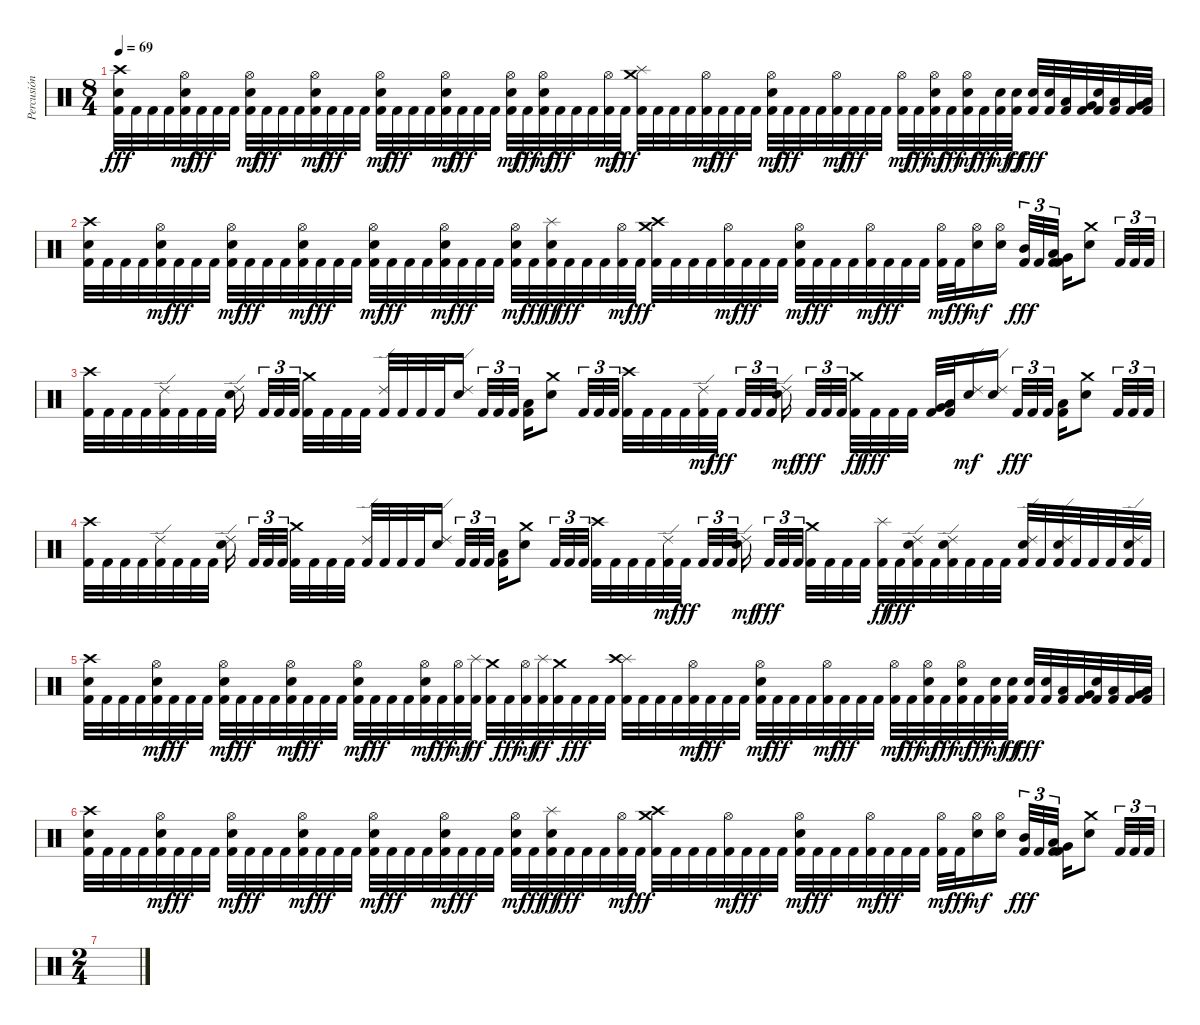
\track ("Percusión" "Percusión") {instrument percussion}
\staff {score}
\articulation defaults
\ts (8 4)
\tempo 69
\clef neutral
\ks c
("Kick (hit) 2" "Electric Snare (hit)" "Crash high (hit)").32{dy fff} "Kick (hit) 2".32 "Kick (hit) 2".32 "Kick (hit) 2".32 ("Kick (hit) 2" "Electric Snare (hit)" "Hi-Hat (open)").32{dy mf} "Kick (hit) 2".32{dy fff} "Kick (hit) 2".32 "Kick (hit) 2".32 ("Kick (hit) 2" "Electric Snare (hit)" "Hi-Hat (open)").32{dy mf} "Kick (hit) 2".32{dy fff} "Kick (hit) 2".32 "Kick (hit) 2".32 ("Kick (hit) 2" "Electric Snare (hit)" "Hi-Hat (open)").32{dy mf} "Kick (hit) 2".32{dy fff} "Kick (hit) 2".32 "Kick (hit) 2".32 ("Kick (hit) 2" "Electric Snare (hit)" "Hi-Hat (open)").32{dy mf} "Kick (hit) 2".32{dy fff} "Kick (hit) 2".32 "Kick (hit) 2".32 ("Kick (hit) 2" "Electric Snare (hit)" "Hi-Hat (open)").32{dy mf} "Kick (hit) 2".32{dy fff} "Kick (hit) 2".32 "Kick (hit) 2".32 ("Kick (hit) 2" "Electric Snare (hit)" "Hi-Hat (open)").32{dy mf} "Kick (hit) 2".32{dy fff} ("Kick (hit) 2" "Electric Snare (hit)" "Hi-Hat (open)").32{dy mf} "Kick (hit) 2".32{dy fff} "Kick (hit) 2".32 "Kick (hit) 2".32 ("Kick (hit) 2" "Hi-Hat (open)").32{dy mf} "Kick (hit) 2".32{dy fff} ("Kick (hit) 2" "Splash (hit)" "Crash medium (hit)").32 "Kick (hit) 2".32 "Kick (hit) 2".32 "Kick (hit) 2".32 ("Kick (hit) 2" "Hi-Hat (open)").32{dy mf} "Kick (hit) 2".32{dy fff} "Kick (hit) 2".32 "Kick (hit) 2".32 ("Kick (hit) 2" "Electric Snare (hit)" "Hi-Hat (open)").32{dy mf} "Kick (hit) 2".32{dy fff} "Kick (hit) 2".32 "Kick (hit) 2".32 ("Kick (hit) 2" "Hi-Hat (open)").32{dy mf} "Kick (hit) 2".32{dy fff} "Kick (hit) 2".32 "Kick (hit) 2".32 ("Kick (hit) 2" "Hi-Hat (open)").32{dy mf} "Kick (hit) 2".32{dy fff} ("Kick (hit) 2" "Electric Snare (hit)" "Hi-Hat (open)").32{dy mf} "Kick (hit) 2".32{dy fff} ("Kick (hit) 2" "Electric Snare (hit)" "Hi-Hat (open)").32{dy mf} "Kick (hit) 2".32{dy fff} ("Kick (hit) 2" "Electric Snare (hit)").32{dy mf} ("Kick (hit) 2" "Electric Snare (hit)").32{dy ff} ("Kick (hit) 2" "Electric Snare (hit)").32{dy fff} ("Kick (hit) 2" "Electric Snare (hit)").32 ("Kick (hit) 2" "Low Tom (hit)").32 ("Kick (hit) 2" "Very Low Tom (hit)").32 ("Kick (hit) 2" "Electric Snare (hit)").32 ("Kick (hit) 2" "Low Tom (hit)").32 ("Kick (hit) 2" "Very Low Tom (hit)").32 ("Kick (hit) 2" "Low Floor Tom (hit)").32 |
("Kick (hit) 2" "Electric Snare (hit)" "Crash high (hit)").32 "Kick (hit) 2".32 "Kick (hit) 2".32 "Kick (hit) 2".32 ("Kick (hit) 2" "Electric Snare (hit)" "Hi-Hat (open)").32{dy mf} "Kick (hit) 2".32{dy fff} "Kick (hit) 2".32 "Kick (hit) 2".32 ("Kick (hit) 2" "Electric Snare (hit)" "Hi-Hat (open)").32{dy mf} "Kick (hit) 2".32{dy fff} "Kick (hit) 2".32 "Kick (hit) 2".32 ("Kick (hit) 2" "Electric Snare (hit)" "Hi-Hat (open)").32{dy mf} "Kick (hit) 2".32{dy fff} "Kick (hit) 2".32 "Kick (hit) 2".32 ("Kick (hit) 2" "Electric Snare (hit)" "Hi-Hat (open)").32{dy mf} "Kick (hit) 2".32{dy fff} "Kick (hit) 2".32 "Kick (hit) 2".32 ("Kick (hit) 2" "Electric Snare (hit)" "Hi-Hat (open)").32{dy mf} "Kick (hit) 2".32{dy fff} "Kick (hit) 2".32 "Kick (hit) 2".32 ("Kick (hit) 2" "Electric Snare (hit)" "Hi-Hat (open)").32{dy mf} "Kick (hit) 2".32{dy fff} ("Kick (hit) 2" "Electric Snare (hit)" "Splash (hit)").32{dy ff} "Kick (hit) 2".32{dy fff} "Kick (hit) 2".32 "Kick (hit) 2".32 ("Kick (hit) 2" "Hi-Hat (open)").32{dy mf} "Kick (hit) 2".32{dy fff} ("Kick (hit) 2" "Crash high (hit)" "Crash medium (hit)").32 "Kick (hit) 2".32 "Kick (hit) 2".32 "Kick (hit) 2".32 ("Kick (hit) 2" "Hi-Hat (open)").32{dy mf} "Kick (hit) 2".32{dy fff} "Kick (hit) 2".32 "Kick (hit) 2".32 ("Kick (hit) 2" "Electric Snare (hit)" "Hi-Hat (open)").32{dy mf} "Kick (hit) 2".32{dy fff} "Kick (hit) 2".32 "Kick (hit) 2".32 ("Kick (hit) 2" "Hi-Hat (open)").32{dy mf} "Kick (hit) 2".32{dy fff} "Kick (hit) 2".32 "Kick (hit) 2".32 ("Kick (hit) 2" "Hi-Hat (open)").32{dy mf} "Kick (hit) 2".32{dy fff} ("Electric Snare (hit)" "Hi-Hat (open)").16{dy mf} ("Electric Snare (hit)" "Hi-Hat (open)").16{beam splitsecondary} ("Kick (hit) 2" "Mid Tom (hit)").32{tu (3 2) dy fff} "Kick (hit) 2".32{tu (3 2)} ("Kick (hit) 2" "Low Tom (hit)").32{tu (3 2)} ("Kick (hit) 2" "Very Low Tom (hit)").16 ("Electric Snare (hit)" "Crash medium (hit)").8 "Kick (hit) 2".32{tu (3 2)} "Kick (hit) 2".32{tu (3 2)} "Kick (hit) 2".32{tu (3 2)} |
("Kick (hit) 2" "Crash high (hit)").32{volume 7} "Kick (hit) 2".32 "Kick (hit) 2".32 "Kick (hit) 2".32 ("Kick (hit) 2" "Ride (edge) 2").32 "Kick (hit) 2".32 "Kick (hit) 2".32 "Kick (hit) 2".32 ("Electric Snare (hit)" "Ride (edge) 2").16{beam splitsecondary} "Kick (hit) 2".32{tu (3 2)} "Kick (hit) 2".32{tu (3 2)} "Kick (hit) 2".32{tu (3 2) beam splitsecondary} ("Kick (hit) 2" "Crash medium (hit)").32 "Kick (hit) 2".32 "Kick (hit) 2".32 "Kick (hit) 2".32 ("Kick (hit) 2" "Ride (edge) 2").32 "Kick (hit) 2".32 "Kick (hit) 2".32 "Kick (hit) 2".32 ("Electric Snare (hit)" "Ride (edge) 2").16{beam splitsecondary} "Kick (hit) 2".32{tu (3 2)} "Kick (hit) 2".32{tu (3 2)} "Kick (hit) 2".32{tu (3 2)} ("Kick (hit) 2" "Low Floor Tom (hit)").16 ("Electric Snare (hit)" "Crash medium (hit)").8 "Kick (hit) 2".32{tu (3 2)} "Kick (hit) 2".32{tu (3 2)} "Kick (hit) 2".32{tu (3 2)} ("Kick (hit) 2" "Crash high (hit)").32 "Kick (hit) 2".32 "Kick (hit) 2".32 "Kick (hit) 2".32 ("Kick (hit) 2" "Ride (edge) 2").32{dy mf} "Kick (hit) 2".32{dy fff beam splitsecondary} "Kick (hit) 2".32{tu (3 2)} "Kick (hit) 2".32{tu (3 2)} "Kick (hit) 2".32{tu (3 2)} ("Electric Snare (hit)" "Ride (edge) 2").16{dy mf beam splitsecondary} "Kick (hit) 2".32{tu (3 2) dy fff} "Kick (hit) 2".32{tu (3 2)} "Kick (hit) 2".32{tu (3 2) beam splitsecondary} ("Kick (hit) 2" "Crash medium (hit)").32{dy ff} "Kick (hit) 2".32{dy fff} "Kick (hit) 2".32 "Kick (hit) 2".32 ("Kick (hit) 2" "Very Low Tom (hit)").32 ("Kick (hit) 2" "Low Floor Tom (hit)").32 ("Electric Snare (hit)" "Ride (edge) 2").16{dy mf} ("Electric Snare (hit)" "Ride (edge) 2").16{beam splitsecondary} "Kick (hit) 2".32{tu (3 2) dy fff} "Kick (hit) 2".32{tu (3 2)} "Kick (hit) 2".32{tu (3 2)} ("Kick (hit) 2" "Low Floor Tom (hit)").16 ("Electric Snare (hit)" "Crash medium (hit)").8 "Kick (hit) 2".32{tu (3 2)} "Kick (hit) 2".32{tu (3 2)} "Kick (hit) 2".32{tu (3 2)} |
("Kick (hit) 2" "Crash high (hit)").32 "Kick (hit) 2".32 "Kick (hit) 2".32 "Kick (hit) 2".32 ("Kick (hit) 2" "Ride (edge) 2").32 "Kick (hit) 2".32 "Kick (hit) 2".32 "Kick (hit) 2".32 ("Electric Snare (hit)" "Ride (edge) 2").16{beam splitsecondary} "Kick (hit) 2".32{tu (3 2)} "Kick (hit) 2".32{tu (3 2)} "Kick (hit) 2".32{tu (3 2) beam splitsecondary} ("Kick (hit) 2" "Crash medium (hit)").32 "Kick (hit) 2".32 "Kick (hit) 2".32 "Kick (hit) 2".32 ("Kick (hit) 2" "Ride (edge) 2").32 "Kick (hit) 2".32 "Kick (hit) 2".32 "Kick (hit) 2".32 ("Electric Snare (hit)" "Ride (edge) 2").16{beam splitsecondary} "Kick (hit) 2".32{tu (3 2)} "Kick (hit) 2".32{tu (3 2)} "Kick (hit) 2".32{tu (3 2)} ("Kick (hit) 2" "Low Floor Tom (hit)").16 ("Electric Snare (hit)" "Crash medium (hit)").8 "Kick (hit) 2".32{tu (3 2)} "Kick (hit) 2".32{tu (3 2)} "Kick (hit) 2".32{tu (3 2)} ("Kick (hit) 2" "Crash high (hit)").32 "Kick (hit) 2".32 "Kick (hit) 2".32 "Kick (hit) 2".32 ("Kick (hit) 2" "Ride (edge) 2").32{dy mf} "Kick (hit) 2".32{dy fff beam splitsecondary} "Kick (hit) 2".32{tu (3 2)} "Kick (hit) 2".32{tu (3 2)} "Kick (hit) 2".32{tu (3 2)} ("Electric Snare (hit)" "Ride (edge) 2").16{dy mf beam splitsecondary} "Kick (hit) 2".32{tu (3 2) dy fff} "Kick (hit) 2".32{tu (3 2)} "Kick (hit) 2".32{tu (3 2) beam splitsecondary} ("Kick (hit) 2" "Crash medium (hit)").32 "Kick (hit) 2".32 "Kick (hit) 2".32 "Kick (hit) 2".32 ("Kick (hit) 2" "Splash (hit)").32{dy ff} "Kick (hit) 2".32{dy fff} ("Kick (hit) 2" "Electric Snare (hit)" "Ride (edge) 2").32 "Kick (hit) 2".32 ("Kick (hit) 2" "Electric Snare (hit)" "Ride (edge) 2").32 "Kick (hit) 2".32 "Kick (hit) 2".32 "Kick (hit) 2".32 ("Kick (hit) 2" "Electric Snare (hit)" "Ride (edge) 2").32 "Kick (hit) 2".32 ("Kick (hit) 2" "Electric Snare (hit)" "Ride (edge) 2").32 "Kick (hit) 2".32 "Kick (hit) 2".32 "Kick (hit) 2".32 ("Kick (hit) 2" "Electric Snare (hit)" "Ride (edge) 2").32 "Kick (hit) 2".32 |
("Kick (hit) 2" "Electric Snare (hit)" "Crash high (hit)").32{volume 0} "Kick (hit) 2".32 "Kick (hit) 2".32 "Kick (hit) 2".32 ("Kick (hit) 2" "Electric Snare (hit)" "Hi-Hat (open)").32{dy mf} "Kick (hit) 2".32{dy fff} "Kick (hit) 2".32 "Kick (hit) 2".32 ("Kick (hit) 2" "Electric Snare (hit)" "Hi-Hat (open)").32{dy mf} "Kick (hit) 2".32{dy fff} "Kick (hit) 2".32 "Kick (hit) 2".32 ("Kick (hit) 2" "Electric Snare (hit)" "Hi-Hat (open)").32{dy mf} "Kick (hit) 2".32{dy fff} "Kick (hit) 2".32 "Kick (hit) 2".32 ("Kick (hit) 2" "Electric Snare (hit)" "Hi-Hat (open)").32{dy mf} "Kick (hit) 2".32{dy fff} "Kick (hit) 2".32 "Kick (hit) 2".32 ("Kick (hit) 2" "Electric Snare (hit)" "Hi-Hat (open)").32{dy mf} "Kick (hit) 2".32{dy fff} ("Kick (hit) 2" "Hi-Hat (open)").32{dy mf} ("Kick (hit) 2" "Splash (hit)").32{dy ff} ("Kick (hit) 2" "Crash medium (hit)").32 "Kick (hit) 2".32{dy fff} ("Kick (hit) 2" "Hi-Hat (open)").32{dy mf} ("Kick (hit) 2" "Splash (hit)").32{dy ff} ("Kick (hit) 2" "Crash medium (hit)").32 "Kick (hit) 2".32{dy fff} "Kick (hit) 2".32 "Kick (hit) 2".32 ("Kick (hit) 2" "Splash (hit)" "Crash high (hit)").32 "Kick (hit) 2".32 "Kick (hit) 2".32 "Kick (hit) 2".32 ("Kick (hit) 2" "Hi-Hat (open)").32{dy mf} "Kick (hit) 2".32{dy fff} "Kick (hit) 2".32 "Kick (hit) 2".32 ("Kick (hit) 2" "Electric Snare (hit)" "Hi-Hat (open)").32{dy mf} "Kick (hit) 2".32{dy fff} "Kick (hit) 2".32 "Kick (hit) 2".32 ("Kick (hit) 2" "Hi-Hat (open)").32{dy mf} "Kick (hit) 2".32{dy fff} "Kick (hit) 2".32 "Kick (hit) 2".32 ("Kick (hit) 2" "Hi-Hat (open)").32{dy mf} "Kick (hit) 2".32{dy fff} ("Kick (hit) 2" "Electric Snare (hit)" "Hi-Hat (open)").32{dy mf} "Kick (hit) 2".32{dy fff} ("Kick (hit) 2" "Electric Snare (hit)" "Hi-Hat (open)").32{dy mf} "Kick (hit) 2".32{dy fff} ("Kick (hit) 2" "Electric Snare (hit)").32{dy mf} ("Kick (hit) 2" "Electric Snare (hit)").32{dy ff} ("Kick (hit) 2" "Electric Snare (hit)").32{dy fff} ("Kick (hit) 2" "Electric Snare (hit)").32 ("Kick (hit) 2" "Low Tom (hit)").32 ("Kick (hit) 2" "Very Low Tom (hit)").32 ("Kick (hit) 2" "Electric Snare (hit)").32 ("Kick (hit) 2" "Low Tom (hit)").32 ("Kick (hit) 2" "Very Low Tom (hit)").32 ("Kick (hit) 2" "Low Floor Tom (hit)").32 |
("Kick (hit) 2" "Electric Snare (hit)" "Crash high (hit)").32 "Kick (hit) 2".32 "Kick (hit) 2".32 "Kick (hit) 2".32 ("Kick (hit) 2" "Electric Snare (hit)" "Hi-Hat (open)").32{dy mf} "Kick (hit) 2".32{dy fff} "Kick (hit) 2".32 "Kick (hit) 2".32 ("Kick (hit) 2" "Electric Snare (hit)" "Hi-Hat (open)").32{dy mf} "Kick (hit) 2".32{dy fff} "Kick (hit) 2".32 "Kick (hit) 2".32 ("Kick (hit) 2" "Electric Snare (hit)" "Hi-Hat (open)").32{dy mf} "Kick (hit) 2".32{dy fff} "Kick (hit) 2".32 "Kick (hit) 2".32 ("Kick (hit) 2" "Electric Snare (hit)" "Hi-Hat (open)").32{dy mf} "Kick (hit) 2".32{dy fff} "Kick (hit) 2".32 "Kick (hit) 2".32 ("Kick (hit) 2" "Electric Snare (hit)" "Hi-Hat (open)").32{dy mf} "Kick (hit) 2".32{dy fff} "Kick (hit) 2".32 "Kick (hit) 2".32 ("Kick (hit) 2" "Electric Snare (hit)" "Hi-Hat (open)").32{dy mf} "Kick (hit) 2".32{dy fff} ("Kick (hit) 2" "Electric Snare (hit)" "Splash (hit)").32{dy ff} "Kick (hit) 2".32{dy fff} "Kick (hit) 2".32 "Kick (hit) 2".32 ("Kick (hit) 2" "Hi-Hat (open)").32{dy mf} "Kick (hit) 2".32{dy fff} ("Kick (hit) 2" "Crash high (hit)" "Crash medium (hit)").32 "Kick (hit) 2".32 "Kick (hit) 2".32 "Kick (hit) 2".32 ("Kick (hit) 2" "Hi-Hat (open)").32{dy mf} "Kick (hit) 2".32{dy fff} "Kick (hit) 2".32 "Kick (hit) 2".32 ("Kick (hit) 2" "Electric Snare (hit)" "Hi-Hat (open)").32{dy mf} "Kick (hit) 2".32{dy fff} "Kick (hit) 2".32 "Kick (hit) 2".32 ("Kick (hit) 2" "Hi-Hat (open)").32{dy mf} "Kick (hit) 2".32{dy fff} "Kick (hit) 2".32 "Kick (hit) 2".32 ("Kick (hit) 2" "Hi-Hat (open)").32{dy mf} "Kick (hit) 2".32{dy fff} ("Electric Snare (hit)" "Hi-Hat (open)").16{dy mf} ("Electric Snare (hit)" "Hi-Hat (open)").16{beam splitsecondary} ("Kick (hit) 2" "Mid Tom (hit)").32{tu (3 2) dy fff} "Kick (hit) 2".32{tu (3 2)} ("Kick (hit) 2" "Low Tom (hit)").32{tu (3 2)} ("Kick (hit) 2" "Very Low Tom (hit)").16 ("Electric Snare (hit)" "Crash medium (hit)").8 "Kick (hit) 2".32{tu (3 2)} "Kick (hit) 2".32{tu (3 2)} "Kick (hit) 2".32{tu (3 2)} |
\ts (2 4)
